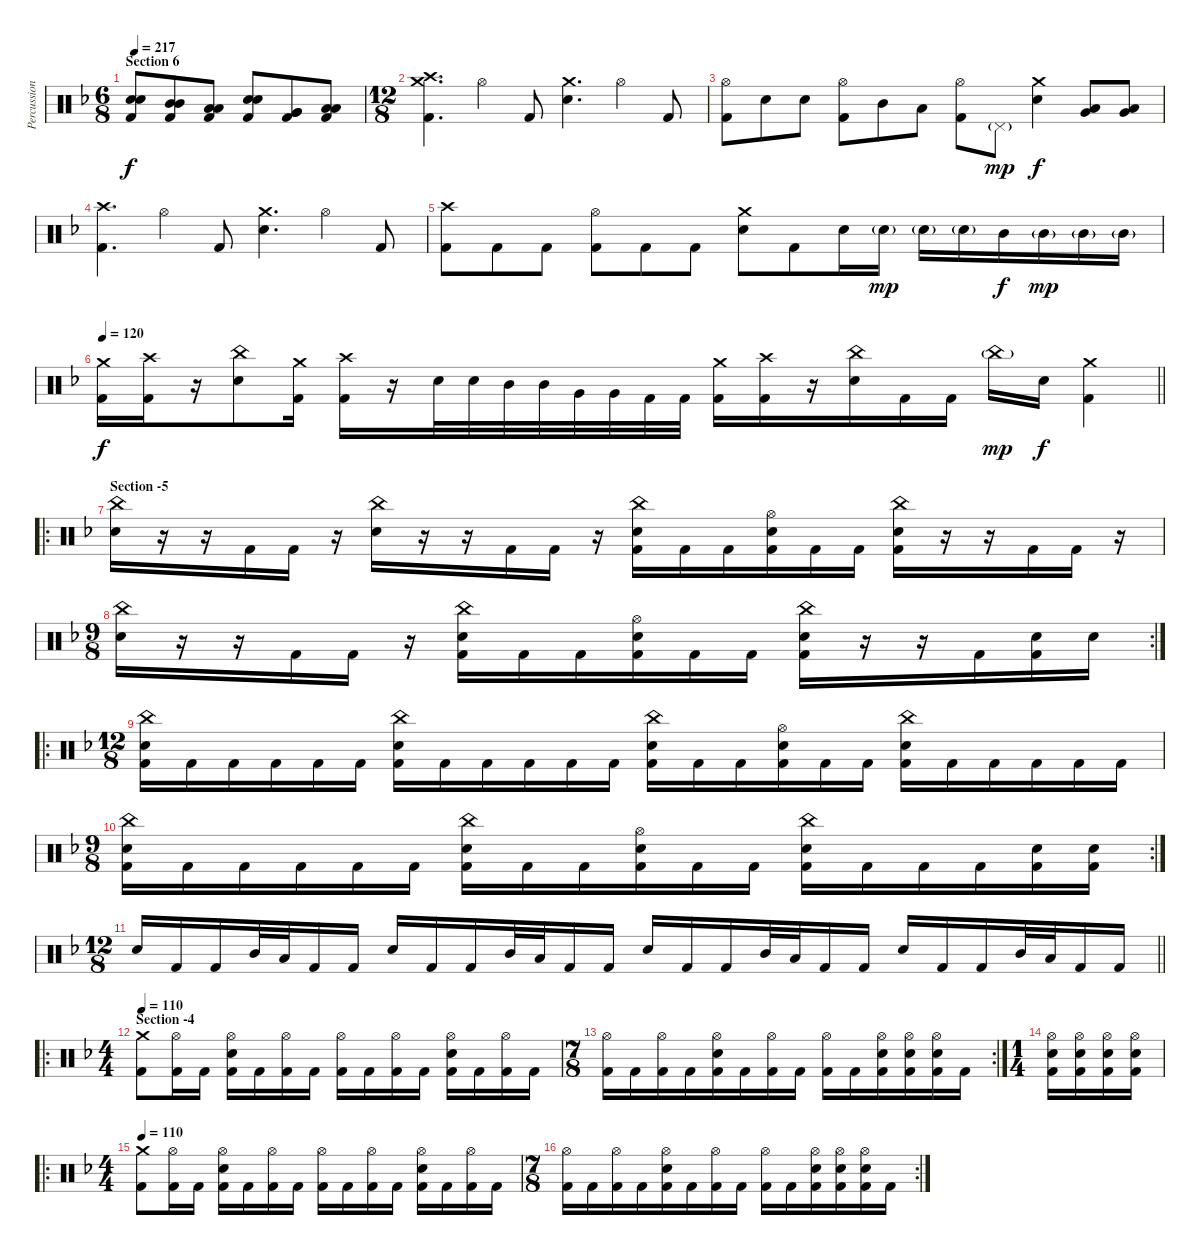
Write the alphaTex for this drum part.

\track ("Percussion" "Percussion") {instrument percussion}
\staff {score}
\articulation defaults
\ts (6 8)
\section ("" "Section 6")
\tempo 217
\clef neutral
\ks dminor
("Electric Snare (hit)" "Electric Snare (hit)" "Kick (hit) 2").8{dy f} ("Mid Tom (hit)" "Mid Tom (hit)" "Kick (hit) 2").8 ("Low Tom (hit)" "Low Tom (hit)" "Kick (hit) 2").8 ("Electric Snare (hit)" "Electric Snare (hit)" "Kick (hit) 2").8 ("Very Low Tom (hit)" "Very Low Tom (hit)" "Kick (hit) 2").8 ("Low Floor Tom (hit)" "Low Floor Tom (hit)" "Kick (hit) 2").8 |
\ts (12 8)
("Crash high (hit)" "Crash medium (hit)" "Kick (hit) 2").4{d} "Hi-Hat (open)".4 "Kick (hit) 2".8 ("Crash medium (hit)" "Electric Snare (hit)").4{d} "Hi-Hat (open)".4 "Kick (hit) 2".8 |
("Hi-Hat (open)" "Kick (hit) 2").8 "Electric Snare (hit)".8 "Electric Snare (hit)".8 ("Hi-Hat (open)" "Kick (hit) 2").8 "Mid Tom (hit)".8 "Low Tom (hit)".8 ("Hi-Hat (open)" "Kick (hit) 2").8 "Pedal Hi-Hat (hit)"{g}.8{dy mp} ("Crash medium (hit)" "Electric Snare (hit)").4{dy f} ("Low Tom (hit)" "Very Low Tom (hit)").8 ("Low Tom (hit)" "Very Low Tom (hit)").8 |
("Crash high (hit)" "Kick (hit) 2").4{d} "Hi-Hat (open)".4 "Kick (hit) 2".8 ("Crash medium (hit)" "Electric Snare (hit)").4{d} "Hi-Hat (open)".4 "Kick (hit) 2".8 |
("Crash high (hit)" "Kick (hit) 2").8 "Kick (hit) 2".8 "Kick (hit) 2".8 ("Hi-Hat (open)" "Kick (hit) 2").8 "Kick (hit) 2".8 "Kick (hit) 2".8 ("Crash medium (hit)" "Electric Snare (hit)").8 "Kick (hit) 2".8 "Electric Snare (hit)".16 "Electric Snare (hit)"{g}.16{dy mp} "Electric Snare (hit)"{g}.16 "Electric Snare (hit)"{g}.16 "Mid Tom (hit)".16{dy f} "Mid Tom (hit)"{g}.16{dy mp} "Mid Tom (hit)"{g}.16 "Mid Tom (hit)"{g}.16 |
\tempo 120
\barLineRight lightlight
("Crash medium (hit)" "Kick (hit) 2").16{dy f} ("Crash high (hit)" "Kick (hit) 2").16 r.16 ("China (hit)" "Electric Snare (hit)").8 ("Crash medium (hit)" "Kick (hit) 2").16 ("Crash high (hit)" "Kick (hit) 2").16 r.16 "Electric Snare (hit)".32 "Electric Snare (hit)".32 "Mid Tom (hit)".32 "Mid Tom (hit)".32 "Very Low Tom (hit)".32 "Very Low Tom (hit)".32 "Kick (hit) 2".32 "Kick (hit) 2".32 ("Crash medium (hit)" "Kick (hit) 2").16 ("Crash high (hit)" "Kick (hit) 2").16 r.16 ("China (hit)" "Electric Snare (hit)").16 "Kick (hit) 2".16 "Kick (hit) 2".16 "China (hit)"{g}.16{dy mp} "Electric Snare (hit)".16{dy f} ("Crash medium (hit)" "Kick (hit) 2").4 |
\ro
\section ("" "Section -5")
("China (hit)" "Electric Snare (hit)").16 r.16 r.16 "Kick (hit) 2".16 "Kick (hit) 2".16 r.16 ("China (hit)" "Electric Snare (hit)").16 r.16 r.16 "Kick (hit) 2".16 "Kick (hit) 2".16 r.16 ("China (hit)" "Electric Snare (hit)" "Kick (hit) 2").16 "Kick (hit) 2".16 "Kick (hit) 2".16 ("Hi-Hat (open)" "Electric Snare (hit)" "Kick (hit) 2").16 "Kick (hit) 2".16 "Kick (hit) 2".16 ("China (hit)" "Electric Snare (hit)" "Kick (hit) 2").16 r.16 r.16 "Kick (hit) 2".16 "Kick (hit) 2".16 r.16 |
\rc 2
\ts (9 8)
("China (hit)" "Electric Snare (hit)").16 r.16 r.16 "Kick (hit) 2".16 "Kick (hit) 2".16 r.16 ("China (hit)" "Electric Snare (hit)" "Kick (hit) 2").16 "Kick (hit) 2".16 "Kick (hit) 2".16 ("Hi-Hat (open)" "Electric Snare (hit)" "Kick (hit) 2").16 "Kick (hit) 2".16 "Kick (hit) 2".16 ("China (hit)" "Electric Snare (hit)" "Kick (hit) 2").16 r.16 r.16 "Kick (hit) 2".16 ("Electric Snare (hit)" "Kick (hit) 2").16 "Electric Snare (hit)".16 |
\ro
\ts (12 8)
("China (hit)" "Electric Snare (hit)" "Kick (hit) 2").16 "Kick (hit) 2".16 "Kick (hit) 2".16 "Kick (hit) 2".16 "Kick (hit) 2".16 "Kick (hit) 2".16 ("China (hit)" "Electric Snare (hit)" "Kick (hit) 2").16 "Kick (hit) 2".16 "Kick (hit) 2".16 "Kick (hit) 2".16 "Kick (hit) 2".16 "Kick (hit) 2".16 ("China (hit)" "Electric Snare (hit)" "Kick (hit) 2").16 "Kick (hit) 2".16 "Kick (hit) 2".16 ("Hi-Hat (open)" "Electric Snare (hit)" "Kick (hit) 2").16 "Kick (hit) 2".16 "Kick (hit) 2".16 ("China (hit)" "Electric Snare (hit)" "Kick (hit) 2").16 "Kick (hit) 2".16 "Kick (hit) 2".16 "Kick (hit) 2".16 "Kick (hit) 2".16 "Kick (hit) 2".16 |
\rc 2
\ts (9 8)
("China (hit)" "Electric Snare (hit)" "Kick (hit) 2").16 "Kick (hit) 2".16 "Kick (hit) 2".16 "Kick (hit) 2".16 "Kick (hit) 2".16 "Kick (hit) 2".16 ("China (hit)" "Electric Snare (hit)" "Kick (hit) 2").16 "Kick (hit) 2".16 "Kick (hit) 2".16 ("Hi-Hat (open)" "Electric Snare (hit)" "Kick (hit) 2").16 "Kick (hit) 2".16 "Kick (hit) 2".16 ("China (hit)" "Electric Snare (hit)" "Kick (hit) 2").16 "Kick (hit) 2".16 "Kick (hit) 2".16 "Kick (hit) 2".16 ("Electric Snare (hit)" "Kick (hit) 2").16 ("Electric Snare (hit)" "Kick (hit) 2").16 |
\ts (12 8)
\barLineRight lightlight "Electric Snare (hit)".16 "Kick (hit) 2".16 "Kick (hit) 2".16 "Mid Tom (hit)".32 "Low Tom (hit)".32 "Kick (hit) 2".16 "Kick (hit) 2".16 "Electric Snare (hit)".16 "Kick (hit) 2".16 "Kick (hit) 2".16 "Mid Tom (hit)".32 "Low Tom (hit)".32 "Kick (hit) 2".16 "Kick (hit) 2".16 "Electric Snare (hit)".16 "Kick (hit) 2".16 "Kick (hit) 2".16 "Mid Tom (hit)".32 "Low Tom (hit)".32 "Kick (hit) 2".16 "Kick (hit) 2".16 "Electric Snare (hit)".16 "Kick (hit) 2".16 "Kick (hit) 2".16 "Mid Tom (hit)".32 "Low Tom (hit)".32 "Kick (hit) 2".16 "Kick (hit) 2".16
|
\ro
\ts (4 4)
\section ("" "Section -4")
\tempo 110
("Crash medium (hit)" "Kick (hit) 2").8 ("Hi-Hat (open)" "Kick (hit) 2").16 "Kick (hit) 2".16 ("Hi-Hat (open)" "Electric Snare (hit)" "Kick (hit) 2").16 "Kick (hit) 2".16 ("Hi-Hat (open)" "Kick (hit) 2").16 "Kick (hit) 2".16 ("Hi-Hat (open)" "Kick (hit) 2").16 "Kick (hit) 2".16 ("Hi-Hat (open)" "Kick (hit) 2").16 "Kick (hit) 2".16 ("Hi-Hat (open)" "Electric Snare (hit)" "Kick (hit) 2").16 "Kick (hit) 2".16 ("Hi-Hat (open)" "Kick (hit) 2").16 "Kick (hit) 2".16 |
\rc 2
\ts (7 8)
("Hi-Hat (open)" "Kick (hit) 2").16 "Kick (hit) 2".16 ("Hi-Hat (open)" "Kick (hit) 2").16 "Kick (hit) 2".16 ("Hi-Hat (open)" "Electric Snare (hit)" "Kick (hit) 2").16 "Kick (hit) 2".16 ("Hi-Hat (open)" "Kick (hit) 2").16 "Kick (hit) 2".16 ("Hi-Hat (open)" "Kick (hit) 2").16 "Kick (hit) 2".16 ("Hi-Hat (open)" "Electric Snare (hit)" "Kick (hit) 2").16 ("Hi-Hat (open)" "Electric Snare (hit)" "Kick (hit) 2").16 ("Hi-Hat (open)" "Electric Snare (hit)" "Kick (hit) 2").16 "Kick (hit) 2".16 |
\ts (1 4)
("Hi-Hat (open)" "Electric Snare (hit)" "Kick (hit) 2").16 ("Hi-Hat (open)" "Electric Snare (hit)" "Kick (hit) 2").16 ("Hi-Hat (open)" "Electric Snare (hit)" "Kick (hit) 2").16 ("Hi-Hat (open)" "Electric Snare (hit)" "Kick (hit) 2").16 |
\ro
\ts (4 4)
\tempo 110
("Crash medium (hit)" "Kick (hit) 2").8 ("Hi-Hat (open)" "Kick (hit) 2").16 "Kick (hit) 2".16 ("Hi-Hat (open)" "Electric Snare (hit)" "Kick (hit) 2").16 "Kick (hit) 2".16 ("Hi-Hat (open)" "Kick (hit) 2").16 "Kick (hit) 2".16 ("Hi-Hat (open)" "Kick (hit) 2").16 "Kick (hit) 2".16 ("Hi-Hat (open)" "Kick (hit) 2").16 "Kick (hit) 2".16 ("Hi-Hat (open)" "Electric Snare (hit)" "Kick (hit) 2").16 "Kick (hit) 2".16 ("Hi-Hat (open)" "Kick (hit) 2").16 "Kick (hit) 2".16 |
\rc 2
\ts (7 8)
("Hi-Hat (open)" "Kick (hit) 2").16 "Kick (hit) 2".16 ("Hi-Hat (open)" "Kick (hit) 2").16 "Kick (hit) 2".16 ("Hi-Hat (open)" "Electric Snare (hit)" "Kick (hit) 2").16 "Kick (hit) 2".16 ("Hi-Hat (open)" "Kick (hit) 2").16 "Kick (hit) 2".16 ("Hi-Hat (open)" "Kick (hit) 2").16 "Kick (hit) 2".16 ("Hi-Hat (open)" "Electric Snare (hit)" "Kick (hit) 2").16 ("Hi-Hat (open)" "Electric Snare (hit)" "Kick (hit) 2").16 ("Hi-Hat (open)" "Electric Snare (hit)" "Kick (hit) 2").16 "Kick (hit) 2".16
